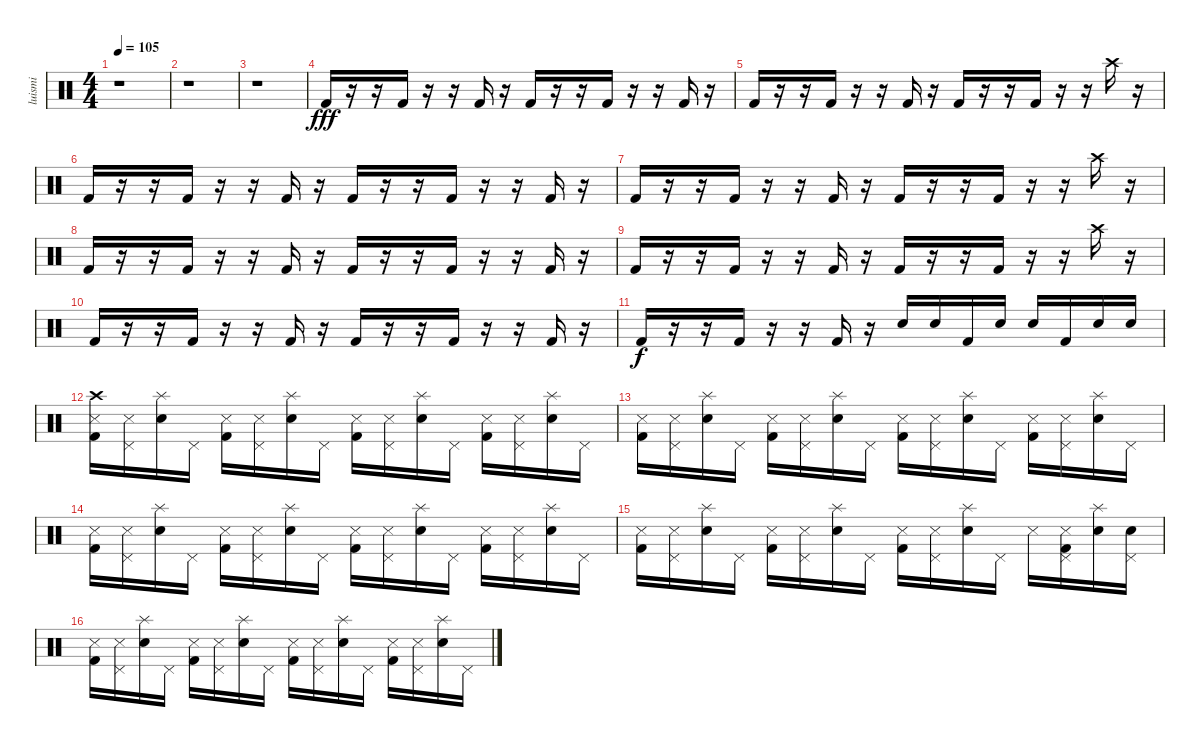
\track ("luismi" "luismi") {instrument percussion}
\staff {score}
\articulation defaults
\ts (4 4)
\tempo 105
\clef neutral
\ks c
r.1{dy f} |
r.1 |
r.1 |
"Kick (hit) 2".16{dy fff volume 12} r.16 r.16 "Kick (hit) 2".16 r.16 r.16 "Kick (hit) 2".16 r.16 "Kick (hit) 2".16 r.16 r.16 "Kick (hit) 2".16 r.16 r.16 "Kick (hit) 2".16 r.16 |
"Kick (hit) 2".16 r.16 r.16 "Kick (hit) 2".16 r.16 r.16 "Kick (hit) 2".16 r.16 "Kick (hit) 2".16 r.16 r.16 "Kick (hit) 2".16 r.16 r.16 "Crash high (hit)".16 r.16 |
"Kick (hit) 2".16 r.16 r.16 "Kick (hit) 2".16 r.16 r.16 "Kick (hit) 2".16 r.16 "Kick (hit) 2".16 r.16 r.16 "Kick (hit) 2".16 r.16 r.16 "Kick (hit) 2".16 r.16 |
"Kick (hit) 2".16 r.16 r.16 "Kick (hit) 2".16 r.16 r.16 "Kick (hit) 2".16 r.16 "Kick (hit) 2".16 r.16 r.16 "Kick (hit) 2".16 r.16 r.16 "Crash high (hit)".16 r.16 |
"Kick (hit) 2".16 r.16 r.16 "Kick (hit) 2".16 r.16 r.16 "Kick (hit) 2".16 r.16 "Kick (hit) 2".16 r.16 r.16 "Kick (hit) 2".16 r.16 r.16 "Kick (hit) 2".16 r.16 |
"Kick (hit) 2".16 r.16 r.16 "Kick (hit) 2".16 r.16 r.16 "Kick (hit) 2".16 r.16 "Kick (hit) 2".16 r.16 r.16 "Kick (hit) 2".16 r.16 r.16 "Crash high (hit)".16 r.16 |
"Kick (hit) 2".16 r.16 r.16 "Kick (hit) 2".16 r.16 r.16 "Kick (hit) 2".16 r.16 "Kick (hit) 2".16 r.16 r.16 "Kick (hit) 2".16 r.16 r.16 "Kick (hit) 2".16 r.16 |
"Kick (hit) 2".16{dy f} r.16 r.16 "Kick (hit) 2".16 r.16 r.16 "Kick (hit) 2".16 r.16 "Electric Snare (hit)".16 "Electric Snare (hit)".16 "Kick (hit) 2".16 "Electric Snare (hit)".16 "Electric Snare (hit)".16 "Kick (hit) 2".16 "Electric Snare (hit)".16 "Electric Snare (hit)".16 |
("Crash high (hit)" "Kick (hit) 2" "Snare (side stick) 3").16 ("Pedal Hi-Hat (hit)" "Snare (side stick) 3").16 ("Electric Snare (hit)" "Splash (hit)").16 "Pedal Hi-Hat (hit)".16 ("Kick (hit) 2" "Snare (side stick) 3").16 ("Pedal Hi-Hat (hit)" "Snare (side stick) 3").16 ("Electric Snare (hit)" "Splash (hit)").16 "Pedal Hi-Hat (hit)".16 ("Kick (hit) 2" "Snare (side stick) 3").16 ("Pedal Hi-Hat (hit)" "Snare (side stick) 3").16 ("Electric Snare (hit)" "Splash (hit)").16 "Pedal Hi-Hat (hit)".16 ("Kick (hit) 2" "Snare (side stick) 3").16 ("Pedal Hi-Hat (hit)" "Snare (side stick) 3").16 ("Electric Snare (hit)" "Splash (hit)").16 "Pedal Hi-Hat (hit)".16 |
("Kick (hit) 2" "Snare (side stick) 3").16 ("Pedal Hi-Hat (hit)" "Snare (side stick) 3").16 ("Electric Snare (hit)" "Splash (hit)").16 "Pedal Hi-Hat (hit)".16 ("Kick (hit) 2" "Snare (side stick) 3").16 ("Pedal Hi-Hat (hit)" "Snare (side stick) 3").16 ("Electric Snare (hit)" "Splash (hit)").16 "Pedal Hi-Hat (hit)".16 ("Kick (hit) 2" "Snare (side stick) 3").16 ("Pedal Hi-Hat (hit)" "Snare (side stick) 3").16 ("Electric Snare (hit)" "Splash (hit)").16 "Pedal Hi-Hat (hit)".16 ("Kick (hit) 2" "Snare (side stick) 3").16 ("Pedal Hi-Hat (hit)" "Snare (side stick) 3").16 ("Electric Snare (hit)" "Splash (hit)").16 "Pedal Hi-Hat (hit)".16 |
("Kick (hit) 2" "Snare (side stick) 3").16 ("Pedal Hi-Hat (hit)" "Snare (side stick) 3").16 ("Electric Snare (hit)" "Splash (hit)").16 "Pedal Hi-Hat (hit)".16 ("Kick (hit) 2" "Snare (side stick) 3").16 ("Pedal Hi-Hat (hit)" "Snare (side stick) 3").16 ("Electric Snare (hit)" "Splash (hit)").16 "Pedal Hi-Hat (hit)".16 ("Kick (hit) 2" "Snare (side stick) 3").16 ("Pedal Hi-Hat (hit)" "Snare (side stick) 3").16 ("Electric Snare (hit)" "Splash (hit)").16 "Pedal Hi-Hat (hit)".16 ("Kick (hit) 2" "Snare (side stick) 3").16 ("Pedal Hi-Hat (hit)" "Snare (side stick) 3").16 ("Electric Snare (hit)" "Splash (hit)").16 "Pedal Hi-Hat (hit)".16 |
("Kick (hit) 2" "Snare (side stick) 3").16 ("Pedal Hi-Hat (hit)" "Snare (side stick) 3").16 ("Electric Snare (hit)" "Splash (hit)").16 "Pedal Hi-Hat (hit)".16 ("Kick (hit) 2" "Snare (side stick) 3").16 ("Pedal Hi-Hat (hit)" "Snare (side stick) 3").16 ("Electric Snare (hit)" "Splash (hit)").16 "Pedal Hi-Hat (hit)".16 ("Kick (hit) 2" "Snare (side stick) 3").16 ("Pedal Hi-Hat (hit)" "Snare (side stick) 3").16 ("Electric Snare (hit)" "Splash (hit)").16 "Pedal Hi-Hat (hit)".16 "Snare (side stick) 3".16 ("Kick (hit) 2" "Pedal Hi-Hat (hit)" "Snare (side stick) 3").16 ("Electric Snare (hit)" "Splash (hit)").16 ("Electric Snare (hit)" "Pedal Hi-Hat (hit)").16 |
("Kick (hit) 2" "Snare (side stick) 3").16 ("Pedal Hi-Hat (hit)" "Snare (side stick) 3").16 ("Electric Snare (hit)" "Splash (hit)").16 "Pedal Hi-Hat (hit)".16 ("Kick (hit) 2" "Snare (side stick) 3").16 ("Pedal Hi-Hat (hit)" "Snare (side stick) 3").16 ("Electric Snare (hit)" "Splash (hit)").16 "Pedal Hi-Hat (hit)".16 ("Kick (hit) 2" "Snare (side stick) 3").16 ("Pedal Hi-Hat (hit)" "Snare (side stick) 3").16 ("Electric Snare (hit)" "Splash (hit)").16 "Pedal Hi-Hat (hit)".16 ("Kick (hit) 2" "Snare (side stick) 3").16 ("Pedal Hi-Hat (hit)" "Snare (side stick) 3").16 ("Electric Snare (hit)" "Splash (hit)").16 "Pedal Hi-Hat (hit)".16
